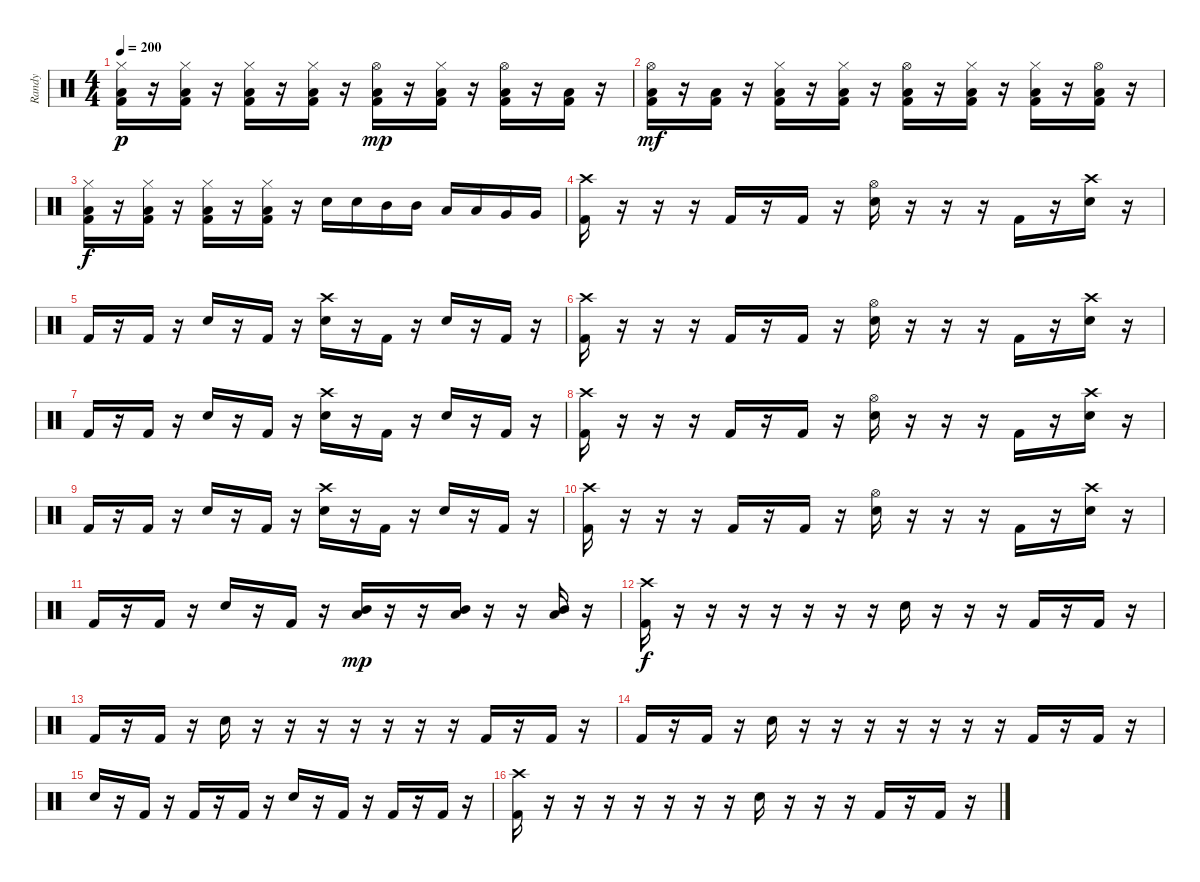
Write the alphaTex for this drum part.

\track ("Randy" "Randy") {instrument percussion}
\staff {score}
\articulation defaults
\ts (4 4)
\tempo 200
\clef neutral
\ks c
("Kick (hit) 2" "Low Tom (hit)" "Hi-Hat (closed)").16{dy p} r.16 ("Kick (hit) 2" "Low Tom (hit)" "Hi-Hat (closed)").16 r.16 ("Kick (hit) 2" "Low Tom (hit)" "Hi-Hat (closed)").16 r.16 ("Kick (hit) 2" "Low Tom (hit)" "Hi-Hat (closed)").16 r.16 ("Kick (hit) 2" "Low Tom (hit)" "Hi-Hat (open)").16{dy mp} r.16 ("Kick (hit) 2" "Low Tom (hit)" "Hi-Hat (closed)").16 r.16 ("Kick (hit) 2" "Low Tom (hit)" "Hi-Hat (open)").16 r.16 ("Kick (hit) 2" "Low Tom (hit)").16 r.16 |
("Kick (hit) 2" "Low Tom (hit)" "Hi-Hat (open)").16{dy mf} r.16 ("Kick (hit) 2" "Low Tom (hit)").16 r.16 ("Kick (hit) 2" "Low Tom (hit)" "Hi-Hat (closed)").16 r.16 ("Kick (hit) 2" "Low Tom (hit)" "Hi-Hat (closed)").16 r.16 ("Kick (hit) 2" "Low Tom (hit)" "Hi-Hat (open)").16 r.16 ("Kick (hit) 2" "Low Tom (hit)" "Hi-Hat (closed)").16 r.16 ("Kick (hit) 2" "Low Tom (hit)" "Hi-Hat (closed)").16 r.16 ("Kick (hit) 2" "Low Tom (hit)" "Hi-Hat (open)").16 r.16 |
("Kick (hit) 2" "Low Tom (hit)" "Hi-Hat (closed)").16{dy f} r.16 ("Kick (hit) 2" "Low Tom (hit)" "Hi-Hat (closed)").16 r.16 ("Kick (hit) 2" "Low Tom (hit)" "Hi-Hat (closed)").16 r.16 ("Kick (hit) 2" "Low Tom (hit)" "Hi-Hat (closed)").16 r.16 "Electric Snare (hit)".16 "Electric Snare (hit)".16 "Mid Tom (hit)".16 "Mid Tom (hit)".16 "Low Tom (hit)".16 "Low Tom (hit)".16 "Very Low Tom (hit)".16 "Very Low Tom (hit)".16 |
("Kick (hit) 2" "Crash high (hit)").16 r.16 r.16 r.16 "Kick (hit) 2".16 r.16 "Kick (hit) 2".16 r.16 ("Electric Snare (hit)" "Hi-Hat (open)").16 r.16 r.16 r.16 "Kick (hit) 2".16 r.16 ("Electric Snare (hit)" "Crash high (hit)").16 r.16 |
"Kick (hit) 2".16 r.16 "Kick (hit) 2".16 r.16 "Electric Snare (hit)".16 r.16 "Kick (hit) 2".16 r.16 ("Electric Snare (hit)" "Crash high (hit)").16 r.16 "Kick (hit) 2".16 r.16 "Electric Snare (hit)".16 r.16 "Kick (hit) 2".16 r.16 |
("Kick (hit) 2" "Crash high (hit)").16 r.16 r.16 r.16 "Kick (hit) 2".16 r.16 "Kick (hit) 2".16 r.16 ("Electric Snare (hit)" "Hi-Hat (open)").16 r.16 r.16 r.16 "Kick (hit) 2".16 r.16 ("Electric Snare (hit)" "Crash high (hit)").16 r.16 |
"Kick (hit) 2".16 r.16 "Kick (hit) 2".16 r.16 "Electric Snare (hit)".16 r.16 "Kick (hit) 2".16 r.16 ("Electric Snare (hit)" "Crash high (hit)").16 r.16 "Kick (hit) 2".16 r.16 "Electric Snare (hit)".16 r.16 "Kick (hit) 2".16 r.16 |
("Kick (hit) 2" "Crash high (hit)").16 r.16 r.16 r.16 "Kick (hit) 2".16 r.16 "Kick (hit) 2".16 r.16 ("Electric Snare (hit)" "Hi-Hat (open)").16 r.16 r.16 r.16 "Kick (hit) 2".16 r.16 ("Electric Snare (hit)" "Crash high (hit)").16 r.16 |
"Kick (hit) 2".16 r.16 "Kick (hit) 2".16 r.16 "Electric Snare (hit)".16 r.16 "Kick (hit) 2".16 r.16 ("Electric Snare (hit)" "Crash high (hit)").16 r.16 "Kick (hit) 2".16 r.16 "Electric Snare (hit)".16 r.16 "Kick (hit) 2".16 r.16 |
("Kick (hit) 2" "Crash high (hit)").16 r.16 r.16 r.16 "Kick (hit) 2".16 r.16 "Kick (hit) 2".16 r.16 ("Electric Snare (hit)" "Hi-Hat (open)").16 r.16 r.16 r.16 "Kick (hit) 2".16 r.16 ("Electric Snare (hit)" "Crash high (hit)").16 r.16 |
"Kick (hit) 2".16 r.16 "Kick (hit) 2".16 r.16 "Electric Snare (hit)".16 r.16 "Kick (hit) 2".16 r.16 ("Mid Tom (hit)" "Low Tom (hit)").16{dy mp} r.16 r.16 ("Mid Tom (hit)" "Low Tom (hit)").16 r.16 r.16 ("Mid Tom (hit)" "Low Tom (hit)").16 r.16 |
("Kick (hit) 2" "Crash high (hit)").16{dy f} r.16 r.16 r.16 r.16 r.16 r.16 r.16 "Electric Snare (hit)".16 r.16 r.16 r.16 "Kick (hit) 2".16 r.16 "Kick (hit) 2".16 r.16 |
"Kick (hit) 2".16 r.16 "Kick (hit) 2".16 r.16 "Electric Snare (hit)".16 r.16 r.16 r.16 r.16 r.16 r.16 r.16 "Kick (hit) 2".16 r.16 "Kick (hit) 2".16 r.16 |
"Kick (hit) 2".16 r.16 "Kick (hit) 2".16 r.16 "Electric Snare (hit)".16 r.16 r.16 r.16 r.16 r.16 r.16 r.16 "Kick (hit) 2".16 r.16 "Kick (hit) 2".16 r.16 |
"Electric Snare (hit)".16 r.16 "Kick (hit) 2".16 r.16 "Kick (hit) 2".16 r.16 "Kick (hit) 2".16 r.16 "Electric Snare (hit)".16 r.16 "Kick (hit) 2".16 r.16 "Kick (hit) 2".16 r.16 "Kick (hit) 2".16 r.16 |
("Kick (hit) 2" "Crash high (hit)").16 r.16 r.16 r.16 r.16 r.16 r.16 r.16 "Electric Snare (hit)".16 r.16 r.16 r.16 "Kick (hit) 2".16 r.16 "Kick (hit) 2".16 r.16
